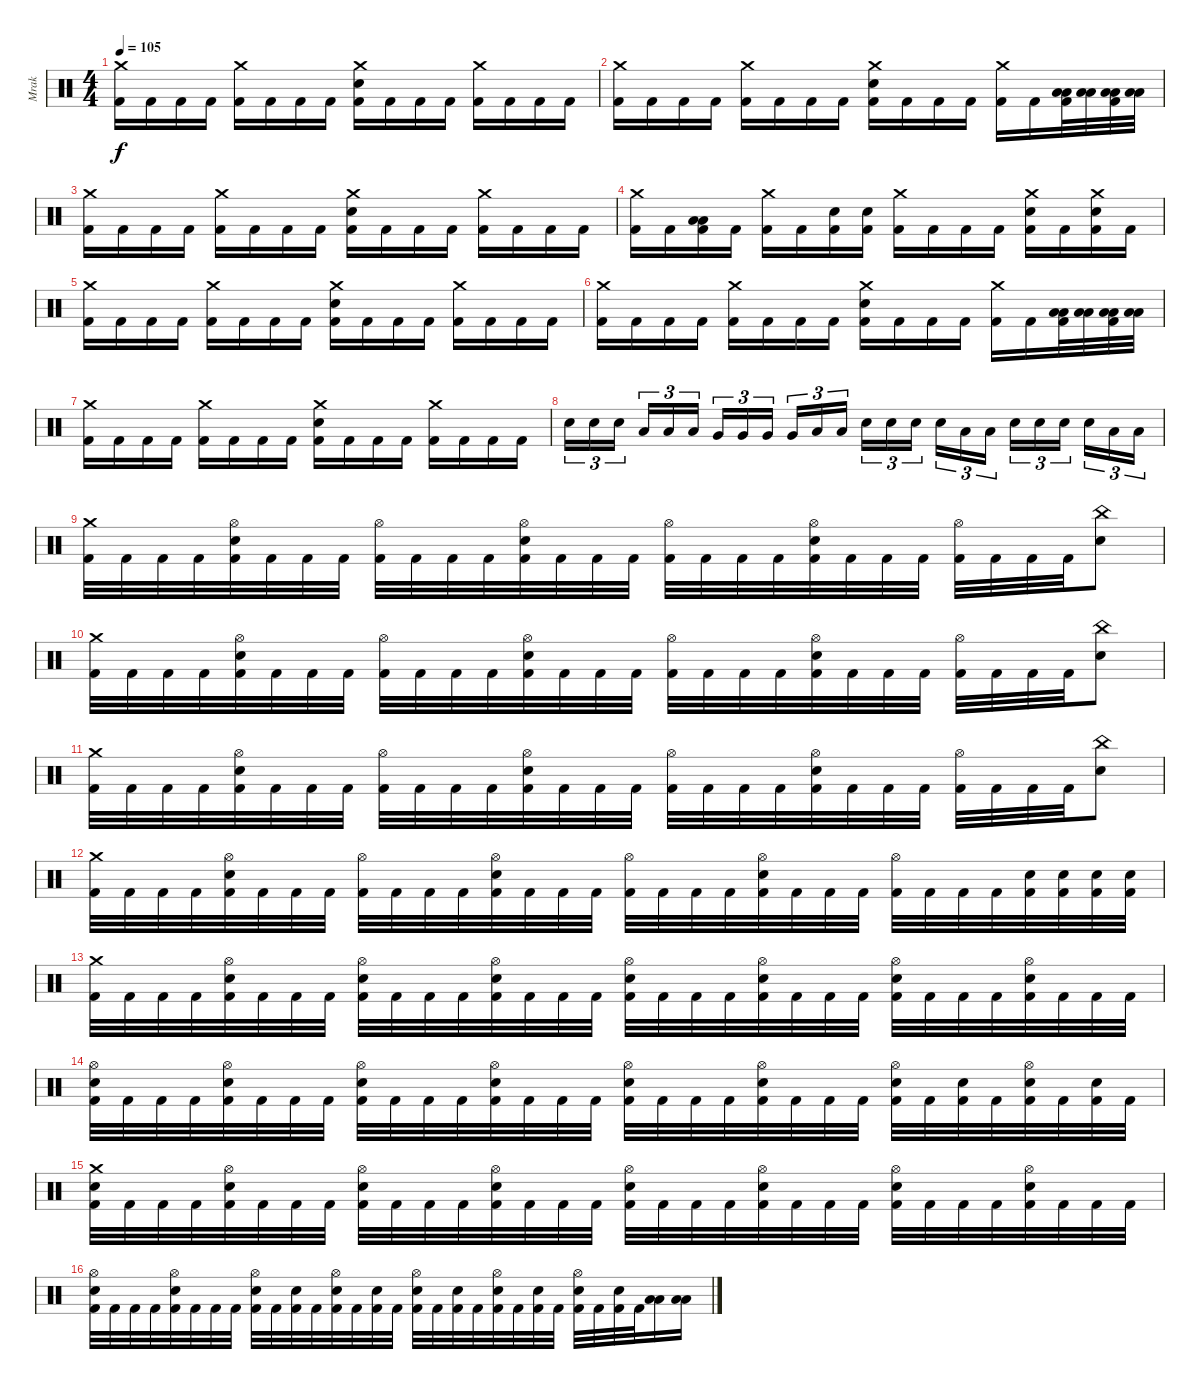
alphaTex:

\track ("Mrak" "Mrak") {instrument percussion}
\staff {score}
\articulation defaults
\ts (4 4)
\tempo 105
\clef neutral
\ks c
("Crash medium (hit)" "Kick (hit) 2").16{dy f} "Kick (hit) 2".16 "Kick (hit) 2".16 "Kick (hit) 2".16 ("Crash medium (hit)" "Kick (hit) 2").16 "Kick (hit) 2".16 "Kick (hit) 2".16 "Kick (hit) 2".16 ("Crash medium (hit)" "Electric Snare (hit)" "Kick (hit) 2").16 "Kick (hit) 2".16 "Kick (hit) 2".16 "Kick (hit) 2".16 ("Crash medium (hit)" "Kick (hit) 2").16 "Kick (hit) 2".16 "Kick (hit) 2".16 "Kick (hit) 2".16 |
("Crash medium (hit)" "Kick (hit) 2").16 "Kick (hit) 2".16 "Kick (hit) 2".16 "Kick (hit) 2".16 ("Crash medium (hit)" "Kick (hit) 2").16 "Kick (hit) 2".16 "Kick (hit) 2".16 "Kick (hit) 2".16 ("Crash medium (hit)" "Electric Snare (hit)" "Kick (hit) 2").16 "Kick (hit) 2".16 "Kick (hit) 2".16 "Kick (hit) 2".16 ("Crash medium (hit)" "Kick (hit) 2").16 "Kick (hit) 2".16 ("Low Tom (hit)" "Low Tom (hit)" "Kick (hit) 2").32 ("Low Tom (hit)" "Low Tom (hit)").32 ("Low Tom (hit)" "Low Tom (hit)" "Kick (hit) 2").32 ("Low Tom (hit)" "Low Tom (hit)").32 |
("Crash medium (hit)" "Kick (hit) 2").16 "Kick (hit) 2".16 "Kick (hit) 2".16 "Kick (hit) 2".16 ("Crash medium (hit)" "Kick (hit) 2").16 "Kick (hit) 2".16 "Kick (hit) 2".16 "Kick (hit) 2".16 ("Crash medium (hit)" "Electric Snare (hit)" "Kick (hit) 2").16 "Kick (hit) 2".16 "Kick (hit) 2".16 "Kick (hit) 2".16 ("Crash medium (hit)" "Kick (hit) 2").16 "Kick (hit) 2".16 "Kick (hit) 2".16 "Kick (hit) 2".16 |
("Crash medium (hit)" "Kick (hit) 2").16 "Kick (hit) 2".16 ("Low Tom (hit)" "Low Tom (hit)" "Kick (hit) 2").16 "Kick (hit) 2".16 ("Crash medium (hit)" "Kick (hit) 2").16 "Kick (hit) 2".16 ("Electric Snare (hit)" "Kick (hit) 2").16 ("Electric Snare (hit)" "Kick (hit) 2").16 ("Crash medium (hit)" "Kick (hit) 2").16 "Kick (hit) 2".16 "Kick (hit) 2".16 "Kick (hit) 2".16 ("Crash medium (hit)" "Electric Snare (hit)" "Kick (hit) 2").16 "Kick (hit) 2".16 ("Crash medium (hit)" "Electric Snare (hit)" "Kick (hit) 2").16 "Kick (hit) 2".16 |
("Crash medium (hit)" "Kick (hit) 2").16 "Kick (hit) 2".16 "Kick (hit) 2".16 "Kick (hit) 2".16 ("Crash medium (hit)" "Kick (hit) 2").16 "Kick (hit) 2".16 "Kick (hit) 2".16 "Kick (hit) 2".16 ("Crash medium (hit)" "Electric Snare (hit)" "Kick (hit) 2").16 "Kick (hit) 2".16 "Kick (hit) 2".16 "Kick (hit) 2".16 ("Crash medium (hit)" "Kick (hit) 2").16 "Kick (hit) 2".16 "Kick (hit) 2".16 "Kick (hit) 2".16 |
("Crash medium (hit)" "Kick (hit) 2").16 "Kick (hit) 2".16 "Kick (hit) 2".16 "Kick (hit) 2".16 ("Crash medium (hit)" "Kick (hit) 2").16 "Kick (hit) 2".16 "Kick (hit) 2".16 "Kick (hit) 2".16 ("Crash medium (hit)" "Electric Snare (hit)" "Kick (hit) 2").16 "Kick (hit) 2".16 "Kick (hit) 2".16 "Kick (hit) 2".16 ("Crash medium (hit)" "Kick (hit) 2").16 "Kick (hit) 2".16 ("Low Tom (hit)" "Low Tom (hit)" "Kick (hit) 2").32 ("Low Tom (hit)" "Low Tom (hit)").32 ("Low Tom (hit)" "Low Tom (hit)" "Kick (hit) 2").32 ("Low Tom (hit)" "Low Tom (hit)").32 |
("Crash medium (hit)" "Kick (hit) 2").16 "Kick (hit) 2".16 "Kick (hit) 2".16 "Kick (hit) 2".16 ("Crash medium (hit)" "Kick (hit) 2").16 "Kick (hit) 2".16 "Kick (hit) 2".16 "Kick (hit) 2".16 ("Crash medium (hit)" "Electric Snare (hit)" "Kick (hit) 2").16 "Kick (hit) 2".16 "Kick (hit) 2".16 "Kick (hit) 2".16 ("Crash medium (hit)" "Kick (hit) 2").16 "Kick (hit) 2".16 "Kick (hit) 2".16 "Kick (hit) 2".16 |
"Electric Snare (hit)".16{tu (3 2)} "Electric Snare (hit)".16{tu (3 2)} "Electric Snare (hit)".16{tu (3 2) beam splitsecondary} "Low Tom (hit)".16{tu (3 2)} "Low Tom (hit)".16{tu (3 2)} "Low Tom (hit)".16{tu (3 2)} "Very Low Tom (hit)".16{tu (3 2)} "Very Low Tom (hit)".16{tu (3 2)} "Very Low Tom (hit)".16{tu (3 2) beam splitsecondary} "Very Low Tom (hit)".16{tu (3 2)} "Low Floor Tom (hit)".16{tu (3 2)} "Low Floor Tom (hit)".16{tu (3 2)} "Electric Snare (hit)".16{tu (3 2)} "Electric Snare (hit)".16{tu (3 2)} "Electric Snare (hit)".16{tu (3 2) beam splitsecondary} "Electric Snare (hit)".16{tu (3 2)} "Low Tom (hit)".16{tu (3 2)} "Low Tom (hit)".16{tu (3 2)} "Electric Snare (hit)".16{tu (3 2)} "Electric Snare (hit)".16{tu (3 2)} "Electric Snare (hit)".16{tu (3 2) beam splitsecondary} "Electric Snare (hit)".16{tu (3 2)} "Low Floor Tom (hit)".16{tu (3 2)} "Low Floor Tom (hit)".16{tu (3 2)} |
("Crash medium (hit)" "Kick (hit) 2").32 "Kick (hit) 2".32 "Kick (hit) 2".32 "Kick (hit) 2".32 ("Hi-Hat (open)" "Electric Snare (hit)" "Kick (hit) 2").32 "Kick (hit) 2".32 "Kick (hit) 2".32 "Kick (hit) 2".32 ("Hi-Hat (open)" "Kick (hit) 2").32 "Kick (hit) 2".32 "Kick (hit) 2".32 "Kick (hit) 2".32 ("Hi-Hat (open)" "Electric Snare (hit)" "Kick (hit) 2").32 "Kick (hit) 2".32 "Kick (hit) 2".32 "Kick (hit) 2".32 ("Hi-Hat (open)" "Kick (hit) 2").32 "Kick (hit) 2".32 "Kick (hit) 2".32 "Kick (hit) 2".32 ("Hi-Hat (open)" "Electric Snare (hit)" "Kick (hit) 2").32 "Kick (hit) 2".32 "Kick (hit) 2".32 "Kick (hit) 2".32 ("Hi-Hat (open)" "Kick (hit) 2").32 "Kick (hit) 2".32 "Kick (hit) 2".32 "Kick (hit) 2".32 ("China (hit)" "Electric Snare (hit)").8 |
("Crash medium (hit)" "Kick (hit) 2").32 "Kick (hit) 2".32 "Kick (hit) 2".32 "Kick (hit) 2".32 ("Hi-Hat (open)" "Electric Snare (hit)" "Kick (hit) 2").32 "Kick (hit) 2".32 "Kick (hit) 2".32 "Kick (hit) 2".32 ("Hi-Hat (open)" "Kick (hit) 2").32 "Kick (hit) 2".32 "Kick (hit) 2".32 "Kick (hit) 2".32 ("Hi-Hat (open)" "Electric Snare (hit)" "Kick (hit) 2").32 "Kick (hit) 2".32 "Kick (hit) 2".32 "Kick (hit) 2".32 ("Hi-Hat (open)" "Kick (hit) 2").32 "Kick (hit) 2".32 "Kick (hit) 2".32 "Kick (hit) 2".32 ("Hi-Hat (open)" "Electric Snare (hit)" "Kick (hit) 2").32 "Kick (hit) 2".32 "Kick (hit) 2".32 "Kick (hit) 2".32 ("Hi-Hat (open)" "Kick (hit) 2").32 "Kick (hit) 2".32 "Kick (hit) 2".32 "Kick (hit) 2".32 ("China (hit)" "Electric Snare (hit)").8 |
("Crash medium (hit)" "Kick (hit) 2").32 "Kick (hit) 2".32 "Kick (hit) 2".32 "Kick (hit) 2".32 ("Hi-Hat (open)" "Electric Snare (hit)" "Kick (hit) 2").32 "Kick (hit) 2".32 "Kick (hit) 2".32 "Kick (hit) 2".32 ("Hi-Hat (open)" "Kick (hit) 2").32 "Kick (hit) 2".32 "Kick (hit) 2".32 "Kick (hit) 2".32 ("Hi-Hat (open)" "Electric Snare (hit)" "Kick (hit) 2").32 "Kick (hit) 2".32 "Kick (hit) 2".32 "Kick (hit) 2".32 ("Hi-Hat (open)" "Kick (hit) 2").32 "Kick (hit) 2".32 "Kick (hit) 2".32 "Kick (hit) 2".32 ("Hi-Hat (open)" "Electric Snare (hit)" "Kick (hit) 2").32 "Kick (hit) 2".32 "Kick (hit) 2".32 "Kick (hit) 2".32 ("Hi-Hat (open)" "Kick (hit) 2").32 "Kick (hit) 2".32 "Kick (hit) 2".32 "Kick (hit) 2".32 ("China (hit)" "Electric Snare (hit)").8 |
("Crash medium (hit)" "Kick (hit) 2").32 "Kick (hit) 2".32 "Kick (hit) 2".32 "Kick (hit) 2".32 ("Hi-Hat (open)" "Electric Snare (hit)" "Kick (hit) 2").32 "Kick (hit) 2".32 "Kick (hit) 2".32 "Kick (hit) 2".32 ("Hi-Hat (open)" "Kick (hit) 2").32 "Kick (hit) 2".32 "Kick (hit) 2".32 "Kick (hit) 2".32 ("Hi-Hat (open)" "Electric Snare (hit)" "Kick (hit) 2").32 "Kick (hit) 2".32 "Kick (hit) 2".32 "Kick (hit) 2".32 ("Hi-Hat (open)" "Kick (hit) 2").32 "Kick (hit) 2".32 "Kick (hit) 2".32 "Kick (hit) 2".32 ("Hi-Hat (open)" "Electric Snare (hit)" "Kick (hit) 2").32 "Kick (hit) 2".32 "Kick (hit) 2".32 "Kick (hit) 2".32 ("Hi-Hat (open)" "Kick (hit) 2").32 "Kick (hit) 2".32 "Kick (hit) 2".32 "Kick (hit) 2".32 ("Electric Snare (hit)" "Kick (hit) 2").32 ("Electric Snare (hit)" "Kick (hit) 2").32 ("Electric Snare (hit)" "Kick (hit) 2").32 ("Electric Snare (hit)" "Kick (hit) 2").32 |
("Crash medium (hit)" "Kick (hit) 2").32 "Kick (hit) 2".32 "Kick (hit) 2".32 "Kick (hit) 2".32 ("Hi-Hat (open)" "Electric Snare (hit)" "Kick (hit) 2").32 "Kick (hit) 2".32 "Kick (hit) 2".32 "Kick (hit) 2".32 ("Hi-Hat (open)" "Electric Snare (hit)" "Kick (hit) 2").32 "Kick (hit) 2".32 "Kick (hit) 2".32 "Kick (hit) 2".32 ("Hi-Hat (open)" "Electric Snare (hit)" "Kick (hit) 2").32 "Kick (hit) 2".32 "Kick (hit) 2".32 "Kick (hit) 2".32 ("Hi-Hat (open)" "Electric Snare (hit)" "Kick (hit) 2").32 "Kick (hit) 2".32 "Kick (hit) 2".32 "Kick (hit) 2".32 ("Hi-Hat (open)" "Electric Snare (hit)" "Kick (hit) 2").32 "Kick (hit) 2".32 "Kick (hit) 2".32 "Kick (hit) 2".32 ("Hi-Hat (open)" "Electric Snare (hit)" "Kick (hit) 2").32 "Kick (hit) 2".32 "Kick (hit) 2".32 "Kick (hit) 2".32 ("Hi-Hat (open)" "Electric Snare (hit)" "Kick (hit) 2").32 "Kick (hit) 2".32 "Kick (hit) 2".32 "Kick (hit) 2".32 |
("Hi-Hat (open)" "Electric Snare (hit)" "Kick (hit) 2").32 "Kick (hit) 2".32 "Kick (hit) 2".32 "Kick (hit) 2".32 ("Hi-Hat (open)" "Electric Snare (hit)" "Kick (hit) 2").32 "Kick (hit) 2".32 "Kick (hit) 2".32 "Kick (hit) 2".32 ("Hi-Hat (open)" "Electric Snare (hit)" "Kick (hit) 2").32 "Kick (hit) 2".32 "Kick (hit) 2".32 "Kick (hit) 2".32 ("Hi-Hat (open)" "Electric Snare (hit)" "Kick (hit) 2").32 "Kick (hit) 2".32 "Kick (hit) 2".32 "Kick (hit) 2".32 ("Hi-Hat (open)" "Electric Snare (hit)" "Kick (hit) 2").32 "Kick (hit) 2".32 "Kick (hit) 2".32 "Kick (hit) 2".32 ("Hi-Hat (open)" "Electric Snare (hit)" "Kick (hit) 2").32 "Kick (hit) 2".32 "Kick (hit) 2".32 "Kick (hit) 2".32 ("Hi-Hat (open)" "Electric Snare (hit)" "Kick (hit) 2").32 "Kick (hit) 2".32 ("Electric Snare (hit)" "Kick (hit) 2").32 "Kick (hit) 2".32 ("Hi-Hat (open)" "Electric Snare (hit)" "Kick (hit) 2").32 "Kick (hit) 2".32 ("Electric Snare (hit)" "Kick (hit) 2").32 "Kick (hit) 2".32 |
("Crash medium (hit)" "Electric Snare (hit)" "Kick (hit) 2").32 "Kick (hit) 2".32 "Kick (hit) 2".32 "Kick (hit) 2".32 ("Hi-Hat (open)" "Electric Snare (hit)" "Kick (hit) 2").32 "Kick (hit) 2".32 "Kick (hit) 2".32 "Kick (hit) 2".32 ("Hi-Hat (open)" "Electric Snare (hit)" "Kick (hit) 2").32 "Kick (hit) 2".32 "Kick (hit) 2".32 "Kick (hit) 2".32 ("Hi-Hat (open)" "Electric Snare (hit)" "Kick (hit) 2").32 "Kick (hit) 2".32 "Kick (hit) 2".32 "Kick (hit) 2".32 ("Hi-Hat (open)" "Electric Snare (hit)" "Kick (hit) 2").32 "Kick (hit) 2".32 "Kick (hit) 2".32 "Kick (hit) 2".32 ("Hi-Hat (open)" "Electric Snare (hit)" "Kick (hit) 2").32 "Kick (hit) 2".32 "Kick (hit) 2".32 "Kick (hit) 2".32 ("Hi-Hat (open)" "Electric Snare (hit)" "Kick (hit) 2").32 "Kick (hit) 2".32 "Kick (hit) 2".32 "Kick (hit) 2".32 ("Hi-Hat (open)" "Electric Snare (hit)" "Kick (hit) 2").32 "Kick (hit) 2".32 "Kick (hit) 2".32 "Kick (hit) 2".32 |
("Hi-Hat (open)" "Electric Snare (hit)" "Kick (hit) 2").32 "Kick (hit) 2".32 "Kick (hit) 2".32 "Kick (hit) 2".32 ("Hi-Hat (open)" "Electric Snare (hit)" "Kick (hit) 2").32 "Kick (hit) 2".32 "Kick (hit) 2".32 "Kick (hit) 2".32 ("Hi-Hat (open)" "Electric Snare (hit)" "Kick (hit) 2").32 "Kick (hit) 2".32 ("Electric Snare (hit)" "Kick (hit) 2").32 "Kick (hit) 2".32 ("Hi-Hat (open)" "Electric Snare (hit)" "Kick (hit) 2").32 "Kick (hit) 2".32 ("Electric Snare (hit)" "Kick (hit) 2").32 "Kick (hit) 2".32 ("Hi-Hat (open)" "Electric Snare (hit)" "Kick (hit) 2").32 "Kick (hit) 2".32 ("Electric Snare (hit)" "Kick (hit) 2").32 "Kick (hit) 2".32 ("Hi-Hat (open)" "Electric Snare (hit)" "Kick (hit) 2").32 "Kick (hit) 2".32 ("Electric Snare (hit)" "Kick (hit) 2").32 "Kick (hit) 2".32 ("Hi-Hat (open)" "Electric Snare (hit)" "Kick (hit) 2").32 "Kick (hit) 2".32 ("Electric Snare (hit)" "Kick (hit) 2").32 "Kick (hit) 2".32 ("Low Tom (hit)" "Low Tom (hit)").16 ("Low Tom (hit)" "Low Tom (hit)").16
